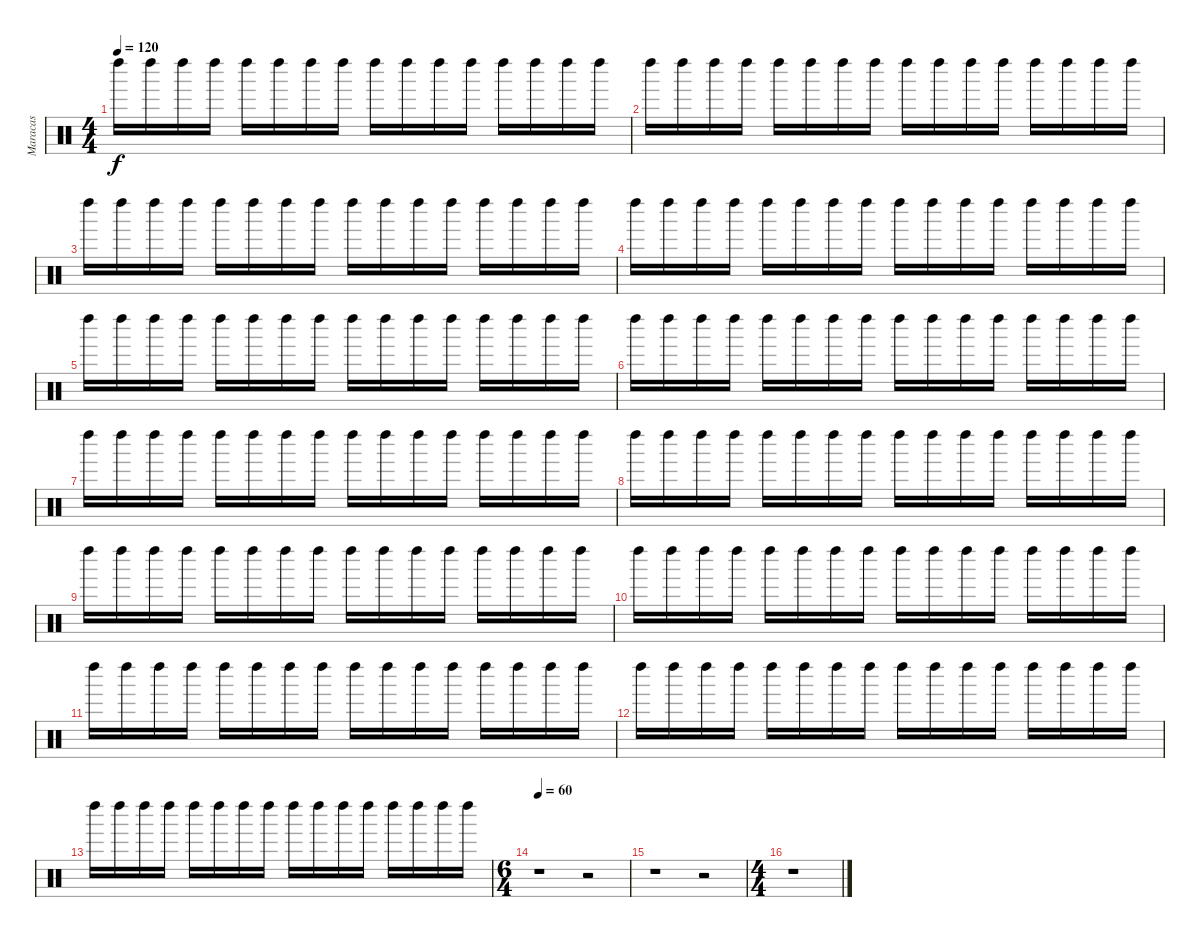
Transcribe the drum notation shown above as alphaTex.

\track ("Maracas" "Maracas") {instrument percussion}
\staff {score}
\articulation defaults
\ts (4 4)
\tempo 120
\clef neutral
\ks c "Left Maraca (hit)".16{dy f} "Left Maraca (hit)".16 "Left Maraca (hit)".16 "Left Maraca (hit)".16 "Left Maraca (hit)".16 "Left Maraca (hit)".16 "Left Maraca (hit)".16 "Left Maraca (hit)".16 "Left Maraca (hit)".16 "Left Maraca (hit)".16 "Left Maraca (hit)".16 "Left Maraca (hit)".16 "Left Maraca (hit)".16 "Left Maraca (hit)".16 "Left Maraca (hit)".16 "Left Maraca (hit)".16
|
"Left Maraca (hit)".16 "Left Maraca (hit)".16 "Left Maraca (hit)".16 "Left Maraca (hit)".16 "Left Maraca (hit)".16 "Left Maraca (hit)".16 "Left Maraca (hit)".16 "Left Maraca (hit)".16 "Left Maraca (hit)".16 "Left Maraca (hit)".16 "Left Maraca (hit)".16 "Left Maraca (hit)".16 "Left Maraca (hit)".16 "Left Maraca (hit)".16 "Left Maraca (hit)".16 "Left Maraca (hit)".16 |
"Left Maraca (hit)".16 "Left Maraca (hit)".16 "Left Maraca (hit)".16 "Left Maraca (hit)".16 "Left Maraca (hit)".16 "Left Maraca (hit)".16 "Left Maraca (hit)".16 "Left Maraca (hit)".16 "Left Maraca (hit)".16 "Left Maraca (hit)".16 "Left Maraca (hit)".16 "Left Maraca (hit)".16 "Left Maraca (hit)".16 "Left Maraca (hit)".16 "Left Maraca (hit)".16 "Left Maraca (hit)".16 |
"Left Maraca (hit)".16 "Left Maraca (hit)".16 "Left Maraca (hit)".16 "Left Maraca (hit)".16 "Left Maraca (hit)".16 "Left Maraca (hit)".16 "Left Maraca (hit)".16 "Left Maraca (hit)".16 "Left Maraca (hit)".16 "Left Maraca (hit)".16 "Left Maraca (hit)".16 "Left Maraca (hit)".16 "Left Maraca (hit)".16 "Left Maraca (hit)".16 "Left Maraca (hit)".16 "Left Maraca (hit)".16 |
"Left Maraca (hit)".16 "Left Maraca (hit)".16 "Left Maraca (hit)".16 "Left Maraca (hit)".16 "Left Maraca (hit)".16 "Left Maraca (hit)".16 "Left Maraca (hit)".16 "Left Maraca (hit)".16 "Left Maraca (hit)".16 "Left Maraca (hit)".16 "Left Maraca (hit)".16 "Left Maraca (hit)".16 "Left Maraca (hit)".16 "Left Maraca (hit)".16 "Left Maraca (hit)".16 "Left Maraca (hit)".16 |
"Left Maraca (hit)".16 "Left Maraca (hit)".16 "Left Maraca (hit)".16 "Left Maraca (hit)".16 "Left Maraca (hit)".16 "Left Maraca (hit)".16 "Left Maraca (hit)".16 "Left Maraca (hit)".16 "Left Maraca (hit)".16 "Left Maraca (hit)".16 "Left Maraca (hit)".16 "Left Maraca (hit)".16 "Left Maraca (hit)".16 "Left Maraca (hit)".16 "Left Maraca (hit)".16 "Left Maraca (hit)".16 |
"Left Maraca (hit)".16 "Left Maraca (hit)".16 "Left Maraca (hit)".16 "Left Maraca (hit)".16 "Left Maraca (hit)".16 "Left Maraca (hit)".16 "Left Maraca (hit)".16 "Left Maraca (hit)".16 "Left Maraca (hit)".16 "Left Maraca (hit)".16 "Left Maraca (hit)".16 "Left Maraca (hit)".16 "Left Maraca (hit)".16 "Left Maraca (hit)".16 "Left Maraca (hit)".16 "Left Maraca (hit)".16 |
"Left Maraca (hit)".16 "Left Maraca (hit)".16 "Left Maraca (hit)".16 "Left Maraca (hit)".16 "Left Maraca (hit)".16 "Left Maraca (hit)".16 "Left Maraca (hit)".16 "Left Maraca (hit)".16 "Left Maraca (hit)".16 "Left Maraca (hit)".16 "Left Maraca (hit)".16 "Left Maraca (hit)".16 "Left Maraca (hit)".16 "Left Maraca (hit)".16 "Left Maraca (hit)".16 "Left Maraca (hit)".16 |
"Left Maraca (hit)".16 "Left Maraca (hit)".16 "Left Maraca (hit)".16 "Left Maraca (hit)".16 "Left Maraca (hit)".16 "Left Maraca (hit)".16 "Left Maraca (hit)".16 "Left Maraca (hit)".16 "Left Maraca (hit)".16 "Left Maraca (hit)".16 "Left Maraca (hit)".16 "Left Maraca (hit)".16 "Left Maraca (hit)".16 "Left Maraca (hit)".16 "Left Maraca (hit)".16 "Left Maraca (hit)".16 |
"Left Maraca (hit)".16 "Left Maraca (hit)".16 "Left Maraca (hit)".16 "Left Maraca (hit)".16 "Left Maraca (hit)".16 "Left Maraca (hit)".16 "Left Maraca (hit)".16 "Left Maraca (hit)".16 "Left Maraca (hit)".16 "Left Maraca (hit)".16 "Left Maraca (hit)".16 "Left Maraca (hit)".16 "Left Maraca (hit)".16 "Left Maraca (hit)".16 "Left Maraca (hit)".16 "Left Maraca (hit)".16 |
"Left Maraca (hit)".16 "Left Maraca (hit)".16 "Left Maraca (hit)".16 "Left Maraca (hit)".16 "Left Maraca (hit)".16 "Left Maraca (hit)".16 "Left Maraca (hit)".16 "Left Maraca (hit)".16 "Left Maraca (hit)".16 "Left Maraca (hit)".16 "Left Maraca (hit)".16 "Left Maraca (hit)".16 "Left Maraca (hit)".16 "Left Maraca (hit)".16 "Left Maraca (hit)".16 "Left Maraca (hit)".16 |
"Left Maraca (hit)".16 "Left Maraca (hit)".16 "Left Maraca (hit)".16 "Left Maraca (hit)".16 "Left Maraca (hit)".16 "Left Maraca (hit)".16 "Left Maraca (hit)".16 "Left Maraca (hit)".16 "Left Maraca (hit)".16 "Left Maraca (hit)".16 "Left Maraca (hit)".16 "Left Maraca (hit)".16 "Left Maraca (hit)".16 "Left Maraca (hit)".16 "Left Maraca (hit)".16 "Left Maraca (hit)".16 |
"Left Maraca (hit)".16 "Left Maraca (hit)".16 "Left Maraca (hit)".16 "Left Maraca (hit)".16 "Left Maraca (hit)".16 "Left Maraca (hit)".16 "Left Maraca (hit)".16 "Left Maraca (hit)".16 "Left Maraca (hit)".16 "Left Maraca (hit)".16 "Left Maraca (hit)".16 "Left Maraca (hit)".16 "Left Maraca (hit)".16 "Left Maraca (hit)".16 "Left Maraca (hit)".16 "Left Maraca (hit)".16 |
\ts (6 4)
\tempo 60
r.1 r.2 |
r.1 r.2 |
\ts (4 4)
r.1
